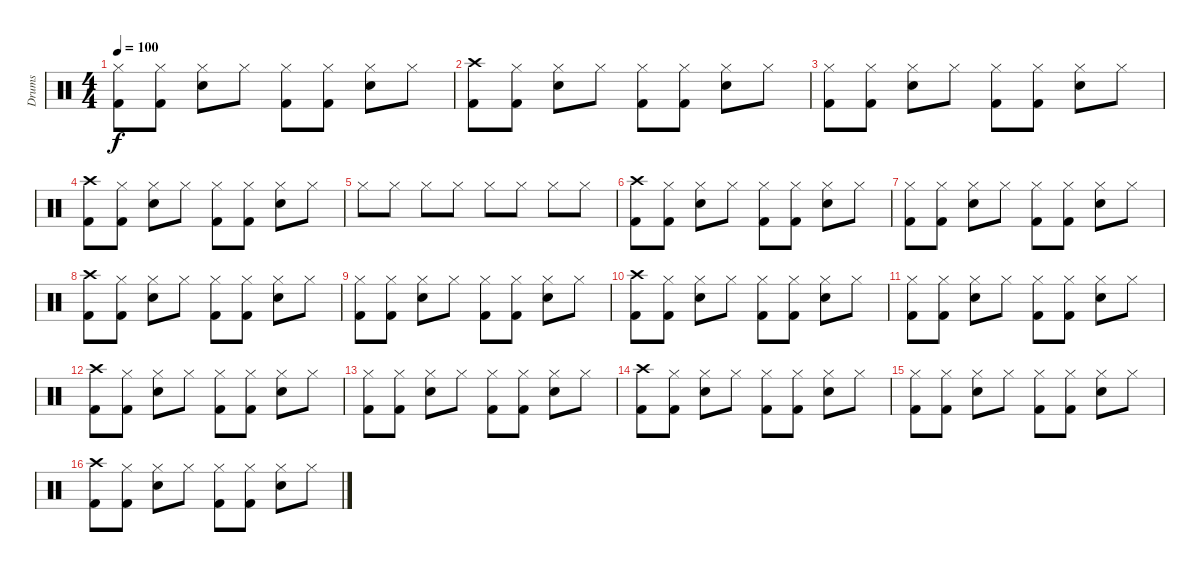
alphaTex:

\track ("Drums" "Drums") {instrument percussion}
\staff {score}
\articulation defaults
\ts (4 4)
\tempo 100
\clef neutral
\ks c
("Hi-Hat (closed)" "Kick (hit) 2").8{dy f} ("Hi-Hat (closed)" "Kick (hit) 2").8 ("Hi-Hat (closed)" "Electric Snare (hit)").8 "Hi-Hat (closed)".8 ("Hi-Hat (closed)" "Kick (hit) 2").8 ("Hi-Hat (closed)" "Kick (hit) 2").8 ("Hi-Hat (closed)" "Electric Snare (hit)").8 "Hi-Hat (closed)".8 |
("Crash high (hit)" "Kick (hit) 2").8 ("Hi-Hat (closed)" "Kick (hit) 2").8 ("Hi-Hat (closed)" "Electric Snare (hit)").8 "Hi-Hat (closed)".8 ("Hi-Hat (closed)" "Kick (hit) 2").8 ("Hi-Hat (closed)" "Kick (hit) 2").8 ("Hi-Hat (closed)" "Electric Snare (hit)").8 "Hi-Hat (closed)".8 |
("Hi-Hat (closed)" "Kick (hit) 2").8 ("Hi-Hat (closed)" "Kick (hit) 2").8 ("Hi-Hat (closed)" "Electric Snare (hit)").8 "Hi-Hat (closed)".8 ("Hi-Hat (closed)" "Kick (hit) 2").8 ("Hi-Hat (closed)" "Kick (hit) 2").8 ("Hi-Hat (closed)" "Electric Snare (hit)").8 "Hi-Hat (closed)".8 |
("Crash high (hit)" "Kick (hit) 2").8 ("Hi-Hat (closed)" "Kick (hit) 2").8 ("Hi-Hat (closed)" "Electric Snare (hit)").8 "Hi-Hat (closed)".8 ("Hi-Hat (closed)" "Kick (hit) 2").8 ("Hi-Hat (closed)" "Kick (hit) 2").8 ("Hi-Hat (closed)" "Electric Snare (hit)").8 "Hi-Hat (closed)".8 |
"Hi-Hat (closed)".8 "Hi-Hat (closed)".8 "Hi-Hat (closed)".8 "Hi-Hat (closed)".8 "Hi-Hat (closed)".8 "Hi-Hat (closed)".8 "Hi-Hat (closed)".8 "Hi-Hat (closed)".8 |
("Crash high (hit)" "Kick (hit) 2").8 ("Hi-Hat (closed)" "Kick (hit) 2").8 ("Hi-Hat (closed)" "Electric Snare (hit)").8 "Hi-Hat (closed)".8 ("Hi-Hat (closed)" "Kick (hit) 2").8 ("Hi-Hat (closed)" "Kick (hit) 2").8 ("Hi-Hat (closed)" "Electric Snare (hit)").8 "Hi-Hat (closed)".8 |
("Hi-Hat (closed)" "Kick (hit) 2").8 ("Hi-Hat (closed)" "Kick (hit) 2").8 ("Hi-Hat (closed)" "Electric Snare (hit)").8 "Hi-Hat (closed)".8 ("Hi-Hat (closed)" "Kick (hit) 2").8 ("Hi-Hat (closed)" "Kick (hit) 2").8 ("Hi-Hat (closed)" "Electric Snare (hit)").8 "Hi-Hat (closed)".8 |
("Crash high (hit)" "Kick (hit) 2").8 ("Hi-Hat (closed)" "Kick (hit) 2").8 ("Hi-Hat (closed)" "Electric Snare (hit)").8 "Hi-Hat (closed)".8 ("Hi-Hat (closed)" "Kick (hit) 2").8 ("Hi-Hat (closed)" "Kick (hit) 2").8 ("Hi-Hat (closed)" "Electric Snare (hit)").8 "Hi-Hat (closed)".8 |
("Hi-Hat (closed)" "Kick (hit) 2").8 ("Hi-Hat (closed)" "Kick (hit) 2").8 ("Hi-Hat (closed)" "Electric Snare (hit)").8 "Hi-Hat (closed)".8 ("Hi-Hat (closed)" "Kick (hit) 2").8 ("Hi-Hat (closed)" "Kick (hit) 2").8 ("Hi-Hat (closed)" "Electric Snare (hit)").8 "Hi-Hat (closed)".8 |
("Crash high (hit)" "Kick (hit) 2").8 ("Hi-Hat (closed)" "Kick (hit) 2").8 ("Hi-Hat (closed)" "Electric Snare (hit)").8 "Hi-Hat (closed)".8 ("Hi-Hat (closed)" "Kick (hit) 2").8 ("Hi-Hat (closed)" "Kick (hit) 2").8 ("Hi-Hat (closed)" "Electric Snare (hit)").8 "Hi-Hat (closed)".8 |
("Hi-Hat (closed)" "Kick (hit) 2").8 ("Hi-Hat (closed)" "Kick (hit) 2").8 ("Hi-Hat (closed)" "Electric Snare (hit)").8 "Hi-Hat (closed)".8 ("Hi-Hat (closed)" "Kick (hit) 2").8 ("Hi-Hat (closed)" "Kick (hit) 2").8 ("Hi-Hat (closed)" "Electric Snare (hit)").8 "Hi-Hat (closed)".8 |
("Crash high (hit)" "Kick (hit) 2").8 ("Hi-Hat (closed)" "Kick (hit) 2").8 ("Hi-Hat (closed)" "Electric Snare (hit)").8 "Hi-Hat (closed)".8 ("Hi-Hat (closed)" "Kick (hit) 2").8 ("Hi-Hat (closed)" "Kick (hit) 2").8 ("Hi-Hat (closed)" "Electric Snare (hit)").8 "Hi-Hat (closed)".8 |
("Hi-Hat (closed)" "Kick (hit) 2").8 ("Hi-Hat (closed)" "Kick (hit) 2").8 ("Hi-Hat (closed)" "Electric Snare (hit)").8 "Hi-Hat (closed)".8 ("Hi-Hat (closed)" "Kick (hit) 2").8 ("Hi-Hat (closed)" "Kick (hit) 2").8 ("Hi-Hat (closed)" "Electric Snare (hit)").8 "Hi-Hat (closed)".8 |
("Crash high (hit)" "Kick (hit) 2").8 ("Hi-Hat (closed)" "Kick (hit) 2").8 ("Hi-Hat (closed)" "Electric Snare (hit)").8 "Hi-Hat (closed)".8 ("Hi-Hat (closed)" "Kick (hit) 2").8 ("Hi-Hat (closed)" "Kick (hit) 2").8 ("Hi-Hat (closed)" "Electric Snare (hit)").8 "Hi-Hat (closed)".8 |
("Hi-Hat (closed)" "Kick (hit) 2").8 ("Hi-Hat (closed)" "Kick (hit) 2").8 ("Hi-Hat (closed)" "Electric Snare (hit)").8 "Hi-Hat (closed)".8 ("Hi-Hat (closed)" "Kick (hit) 2").8 ("Hi-Hat (closed)" "Kick (hit) 2").8 ("Hi-Hat (closed)" "Electric Snare (hit)").8 "Hi-Hat (closed)".8 |
("Crash high (hit)" "Kick (hit) 2").8 ("Hi-Hat (closed)" "Kick (hit) 2").8 ("Hi-Hat (closed)" "Electric Snare (hit)").8 "Hi-Hat (closed)".8 ("Hi-Hat (closed)" "Kick (hit) 2").8 ("Hi-Hat (closed)" "Kick (hit) 2").8 ("Hi-Hat (closed)" "Electric Snare (hit)").8 "Hi-Hat (closed)".8
